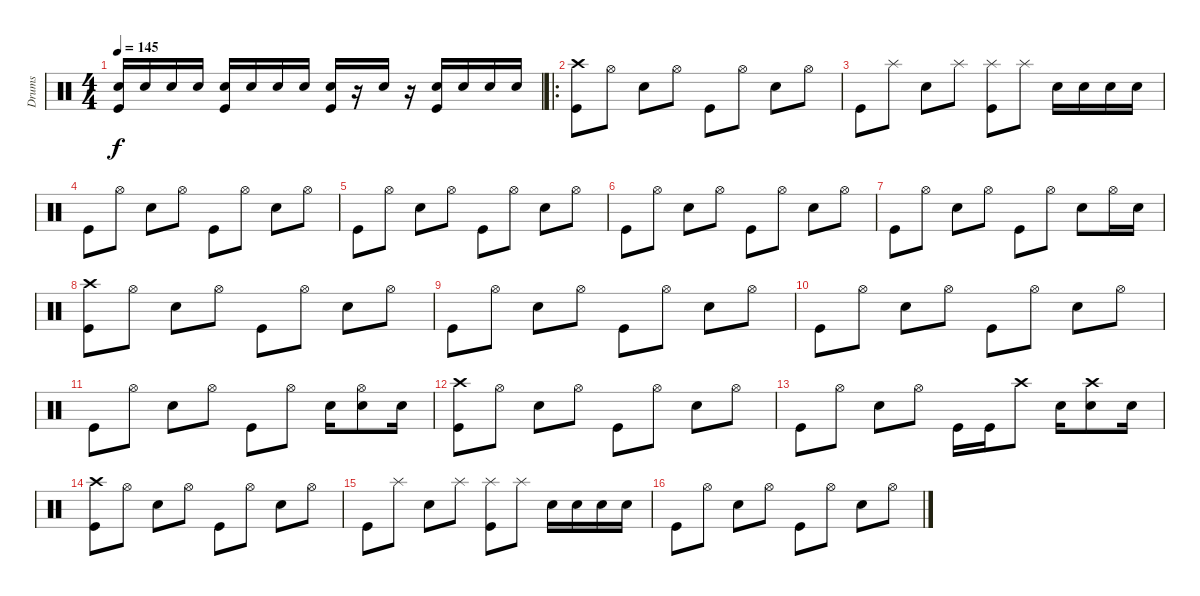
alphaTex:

\track ("Drums" "Drums") {instrument percussion}
\staff {score}
\articulation defaults
\ts (4 4)
\tempo 145
\clef neutral
\ks c
("Electric Snare (hit)" "Kick (hit)").16{dy f} "Electric Snare (hit)".16 "Electric Snare (hit)".16 "Electric Snare (hit)".16 ("Electric Snare (hit)" "Kick (hit)").16 "Electric Snare (hit)".16 "Electric Snare (hit)".16 "Electric Snare (hit)".16 ("Electric Snare (hit)" "Kick (hit)").16 r.16 "Electric Snare (hit)".16 r.16 ("Electric Snare (hit)" "Kick (hit)").16 "Electric Snare (hit)".16 "Electric Snare (hit)".16 "Electric Snare (hit)".16 |
\ro
("Crash high (hit)" "Kick (hit)").8 "Hi-Hat (open)".8 "Electric Snare (hit)".8 "Hi-Hat (open)".8 "Kick (hit)".8 "Hi-Hat (open)".8 "Electric Snare (hit)".8 "Hi-Hat (open)".8 |
"Kick (hit)".8 "Splash (hit)".8 "Electric Snare (hit)".8 "Splash (hit)".8 ("Splash (hit)" "Kick (hit)").8 "Splash (hit)".8 "Electric Snare (hit)".16 "Electric Snare (hit)".16 "Electric Snare (hit)".16 "Electric Snare (hit)".16 |
"Kick (hit)".8 "Hi-Hat (open)".8 "Electric Snare (hit)".8 "Hi-Hat (open)".8 "Kick (hit)".8 "Hi-Hat (open)".8 "Electric Snare (hit)".8 "Hi-Hat (open)".8 |
"Kick (hit)".8 "Hi-Hat (open)".8 "Electric Snare (hit)".8 "Hi-Hat (open)".8 "Kick (hit)".8 "Hi-Hat (open)".8 "Electric Snare (hit)".8 "Hi-Hat (open)".8 |
"Kick (hit)".8 "Hi-Hat (open)".8 "Electric Snare (hit)".8 "Hi-Hat (open)".8 "Kick (hit)".8 "Hi-Hat (open)".8 "Electric Snare (hit)".8 "Hi-Hat (open)".8 |
"Kick (hit)".8 "Hi-Hat (open)".8 "Electric Snare (hit)".8 "Hi-Hat (open)".8 "Kick (hit)".8 "Hi-Hat (open)".8 "Electric Snare (hit)".8 "Hi-Hat (open)".16 "Electric Snare (hit)".16 |
("Crash high (hit)" "Kick (hit)").8 "Hi-Hat (open)".8 "Electric Snare (hit)".8 "Hi-Hat (open)".8 "Kick (hit)".8 "Hi-Hat (open)".8 "Electric Snare (hit)".8 "Hi-Hat (open)".8 |
"Kick (hit)".8 "Hi-Hat (open)".8 "Electric Snare (hit)".8 "Hi-Hat (open)".8 "Kick (hit)".8 "Hi-Hat (open)".8 "Electric Snare (hit)".8 "Hi-Hat (open)".8 |
"Kick (hit)".8 "Hi-Hat (open)".8 "Electric Snare (hit)".8 "Hi-Hat (open)".8 "Kick (hit)".8 "Hi-Hat (open)".8 "Electric Snare (hit)".8 "Hi-Hat (open)".8 |
"Kick (hit)".8 "Hi-Hat (open)".8 "Electric Snare (hit)".8 "Hi-Hat (open)".8 "Kick (hit)".8 "Hi-Hat (open)".8 "Electric Snare (hit)".16 ("Electric Snare (hit)" "Hi-Hat (open)").8 "Electric Snare (hit)".16 |
("Crash high (hit)" "Kick (hit)").8 "Hi-Hat (open)".8 "Electric Snare (hit)".8 "Hi-Hat (open)".8 "Kick (hit)".8 "Hi-Hat (open)".8 "Electric Snare (hit)".8 "Hi-Hat (open)".8 |
"Kick (hit)".8 "Hi-Hat (open)".8 "Electric Snare (hit)".8 "Hi-Hat (open)".8 "Kick (hit)".16 "Kick (hit)".16 "Crash high (hit)".8 "Electric Snare (hit)".16 ("Crash high (hit)" "Electric Snare (hit)").8 "Electric Snare (hit)".16 |
("Crash high (hit)" "Kick (hit)").8 "Hi-Hat (open)".8 "Electric Snare (hit)".8 "Hi-Hat (open)".8 "Kick (hit)".8 "Hi-Hat (open)".8 "Electric Snare (hit)".8 "Hi-Hat (open)".8 |
"Kick (hit)".8 "Splash (hit)".8 "Electric Snare (hit)".8 "Splash (hit)".8 ("Splash (hit)" "Kick (hit)").8 "Splash (hit)".8 "Electric Snare (hit)".16 "Electric Snare (hit)".16 "Electric Snare (hit)".16 "Electric Snare (hit)".16 |
"Kick (hit)".8 "Hi-Hat (open)".8 "Electric Snare (hit)".8 "Hi-Hat (open)".8 "Kick (hit)".8 "Hi-Hat (open)".8 "Electric Snare (hit)".8 "Hi-Hat (open)".8
